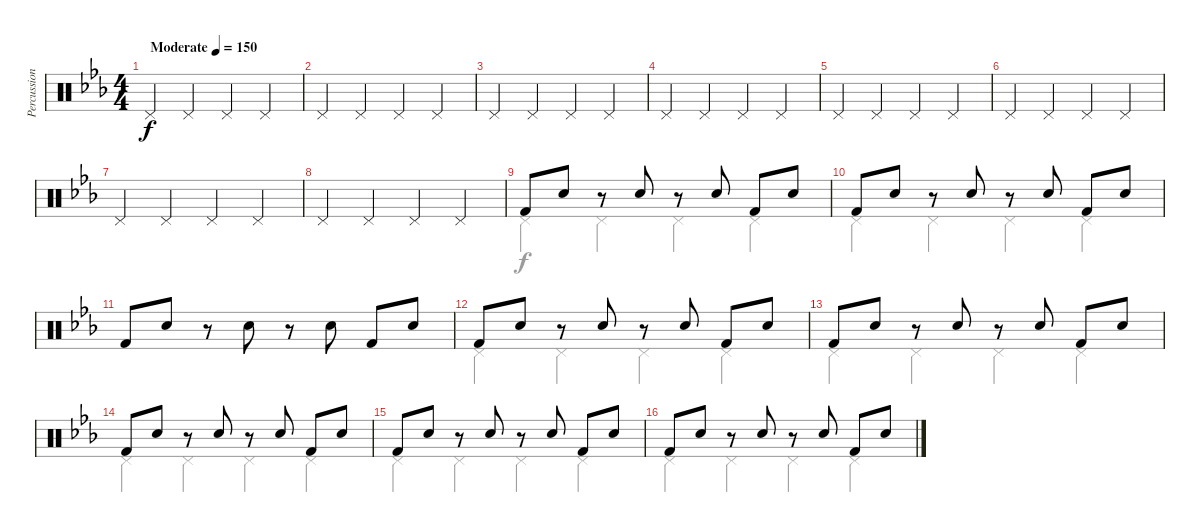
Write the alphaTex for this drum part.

\track ("Percussion" "Percussion") {instrument percussion}
\staff {score}
\articulation defaults
\voice
\ts (4 4)
\tempo (150 "Moderate")
\clef neutral
\ks cminor "Pedal Hi-Hat (hit)".4{dy f} "Pedal Hi-Hat (hit)".4 "Pedal Hi-Hat (hit)".4 "Pedal Hi-Hat (hit)".4
|
"Pedal Hi-Hat (hit)".4 "Pedal Hi-Hat (hit)".4 "Pedal Hi-Hat (hit)".4 "Pedal Hi-Hat (hit)".4 |
"Pedal Hi-Hat (hit)".4 "Pedal Hi-Hat (hit)".4 "Pedal Hi-Hat (hit)".4 "Pedal Hi-Hat (hit)".4 |
"Pedal Hi-Hat (hit)".4 "Pedal Hi-Hat (hit)".4 "Pedal Hi-Hat (hit)".4 "Pedal Hi-Hat (hit)".4 |
"Pedal Hi-Hat (hit)".4 "Pedal Hi-Hat (hit)".4 "Pedal Hi-Hat (hit)".4 "Pedal Hi-Hat (hit)".4 |
"Pedal Hi-Hat (hit)".4 "Pedal Hi-Hat (hit)".4 "Pedal Hi-Hat (hit)".4 "Pedal Hi-Hat (hit)".4 |
"Pedal Hi-Hat (hit)".4 "Pedal Hi-Hat (hit)".4 "Pedal Hi-Hat (hit)".4 "Pedal Hi-Hat (hit)".4 |
"Pedal Hi-Hat (hit)".4 "Pedal Hi-Hat (hit)".4 "Pedal Hi-Hat (hit)".4 "Pedal Hi-Hat (hit)".4 |
"Kick (hit) 2".8 "Snare (hit) 2".8 r.8 "Snare (hit) 2".8 r.8 "Snare (hit) 2".8 "Kick (hit) 2".8 "Snare (hit) 2".8 |
"Kick (hit) 2".8 "Snare (hit) 2".8 r.8 "Snare (hit) 2".8 r.8 "Snare (hit) 2".8 "Kick (hit) 2".8 "Snare (hit) 2".8 |
"Kick (hit) 2".8 "Snare (hit) 2".8 r.8 "Snare (hit) 2".8 r.8 "Snare (hit) 2".8 "Kick (hit) 2".8 "Snare (hit) 2".8 |
"Kick (hit) 2".8 "Snare (hit) 2".8 r.8 "Snare (hit) 2".8 r.8 "Snare (hit) 2".8 "Kick (hit) 2".8 "Snare (hit) 2".8 |
"Kick (hit) 2".8 "Snare (hit) 2".8 r.8 "Snare (hit) 2".8 r.8 "Snare (hit) 2".8 "Kick (hit) 2".8 "Snare (hit) 2".8 |
"Kick (hit) 2".8 "Snare (hit) 2".8 r.8 "Snare (hit) 2".8 r.8 "Snare (hit) 2".8 "Kick (hit) 2".8 "Snare (hit) 2".8 |
"Kick (hit) 2".8 "Snare (hit) 2".8 r.8 "Snare (hit) 2".8 r.8 "Snare (hit) 2".8 "Kick (hit) 2".8 "Snare (hit) 2".8 |
"Kick (hit) 2".8 "Snare (hit) 2".8 r.8 "Snare (hit) 2".8 r.8 "Snare (hit) 2".8 "Kick (hit) 2".8 "Snare (hit) 2".8
\voice
\clef neutral
\ottava regular
\simile none
\ks cminor
|
|
|
|
|
|
|
|
"Pedal Hi-Hat (hit)".4 "Pedal Hi-Hat (hit)".4 "Pedal Hi-Hat (hit)".4 "Pedal Hi-Hat (hit)".4 |
"Pedal Hi-Hat (hit)".4 "Pedal Hi-Hat (hit)".4 "Pedal Hi-Hat (hit)".4 "Pedal Hi-Hat (hit)".4 |
|
"Pedal Hi-Hat (hit)".4 "Pedal Hi-Hat (hit)".4 "Pedal Hi-Hat (hit)".4 "Pedal Hi-Hat (hit)".4 |
"Pedal Hi-Hat (hit)".4 "Pedal Hi-Hat (hit)".4 "Pedal Hi-Hat (hit)".4 "Pedal Hi-Hat (hit)".4 |
"Pedal Hi-Hat (hit)".4 "Pedal Hi-Hat (hit)".4 "Pedal Hi-Hat (hit)".4 "Pedal Hi-Hat (hit)".4 |
"Pedal Hi-Hat (hit)".4 "Pedal Hi-Hat (hit)".4 "Pedal Hi-Hat (hit)".4 "Pedal Hi-Hat (hit)".4 |
"Pedal Hi-Hat (hit)".4 "Pedal Hi-Hat (hit)".4 "Pedal Hi-Hat (hit)".4 "Pedal Hi-Hat (hit)".4
